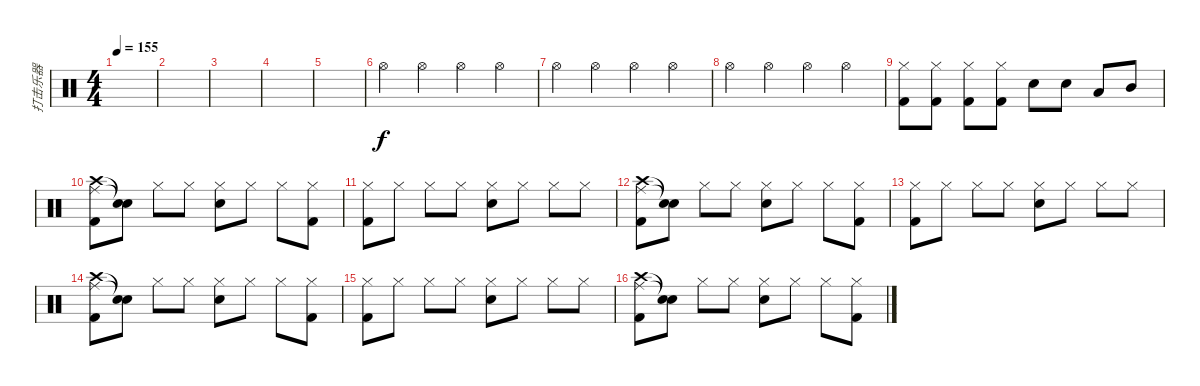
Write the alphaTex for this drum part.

\track ("打击乐器" "打击乐器") {instrument percussion}
\staff {score}
\articulation defaults
\ts (4 4)
\tempo 155
\clef neutral
\ks c
|
|
|
|
|
"Hi-Hat (open)".4 "Hi-Hat (open)".4 "Hi-Hat (open)".4 "Hi-Hat (open)".4 |
"Hi-Hat (open)".4 "Hi-Hat (open)".4 "Hi-Hat (open)".4 "Hi-Hat (open)".4 |
"Hi-Hat (open)".4 "Hi-Hat (open)".4 "Hi-Hat (open)".4 "Hi-Hat (open)".4 |
("Hi-Hat (closed)" "Kick (hit) 2").8 ("Hi-Hat (closed)" "Kick (hit) 2").8 ("Hi-Hat (closed)" "Kick (hit) 2").8 ("Hi-Hat (closed)" "Kick (hit) 2").8 "Snare (hit) 2".8 "Snare (hit) 2".8 "Low Tom (hit)".8 "Mid Tom (hit)".8 |
("Crash high (hit)" "Ride (middle)" "Kick (hit) 2").8 ("Snare (hit)"{t} "Snare (hit)"{t}).8 "Hi-Hat (closed)".8 "Hi-Hat (closed)".8 ("Hi-Hat (closed)" "Snare (hit) 2").8 "Hi-Hat (closed)".8 "Hi-Hat (closed)".8 ("Hi-Hat (closed)" "Kick (hit) 2").8 |
("Hi-Hat (closed)" "Kick (hit) 2").8 "Hi-Hat (closed)".8 "Hi-Hat (closed)".8 "Hi-Hat (closed)".8 ("Hi-Hat (closed)" "Snare (hit) 2").8 "Hi-Hat (closed)".8 "Hi-Hat (closed)".8 "Hi-Hat (closed)".8 |
("Crash high (hit)" "Ride (middle)" "Kick (hit) 2").8 ("Snare (hit)"{t} "Snare (hit)"{t}).8 "Hi-Hat (closed)".8 "Hi-Hat (closed)".8 ("Hi-Hat (closed)" "Snare (hit) 2").8 "Hi-Hat (closed)".8 "Hi-Hat (closed)".8 ("Hi-Hat (closed)" "Kick (hit) 2").8 |
("Hi-Hat (closed)" "Kick (hit) 2").8 "Hi-Hat (closed)".8 "Hi-Hat (closed)".8 "Hi-Hat (closed)".8 ("Hi-Hat (closed)" "Snare (hit) 2").8 "Hi-Hat (closed)".8 "Hi-Hat (closed)".8 "Hi-Hat (closed)".8 |
("Crash high (hit)" "Ride (middle)" "Kick (hit) 2").8 ("Snare (hit)"{t} "Snare (hit)"{t}).8 "Hi-Hat (closed)".8 "Hi-Hat (closed)".8 ("Hi-Hat (closed)" "Snare (hit) 2").8 "Hi-Hat (closed)".8 "Hi-Hat (closed)".8 ("Hi-Hat (closed)" "Kick (hit) 2").8 |
("Hi-Hat (closed)" "Kick (hit) 2").8 "Hi-Hat (closed)".8 "Hi-Hat (closed)".8 "Hi-Hat (closed)".8 ("Hi-Hat (closed)" "Snare (hit) 2").8 "Hi-Hat (closed)".8 "Hi-Hat (closed)".8 "Hi-Hat (closed)".8 |
("Crash high (hit)" "Ride (middle)" "Kick (hit) 2").8 ("Snare (hit)"{t} "Snare (hit)"{t}).8 "Hi-Hat (closed)".8 "Hi-Hat (closed)".8 ("Hi-Hat (closed)" "Snare (hit) 2").8 "Hi-Hat (closed)".8 "Hi-Hat (closed)".8 ("Hi-Hat (closed)" "Kick (hit) 2").8
